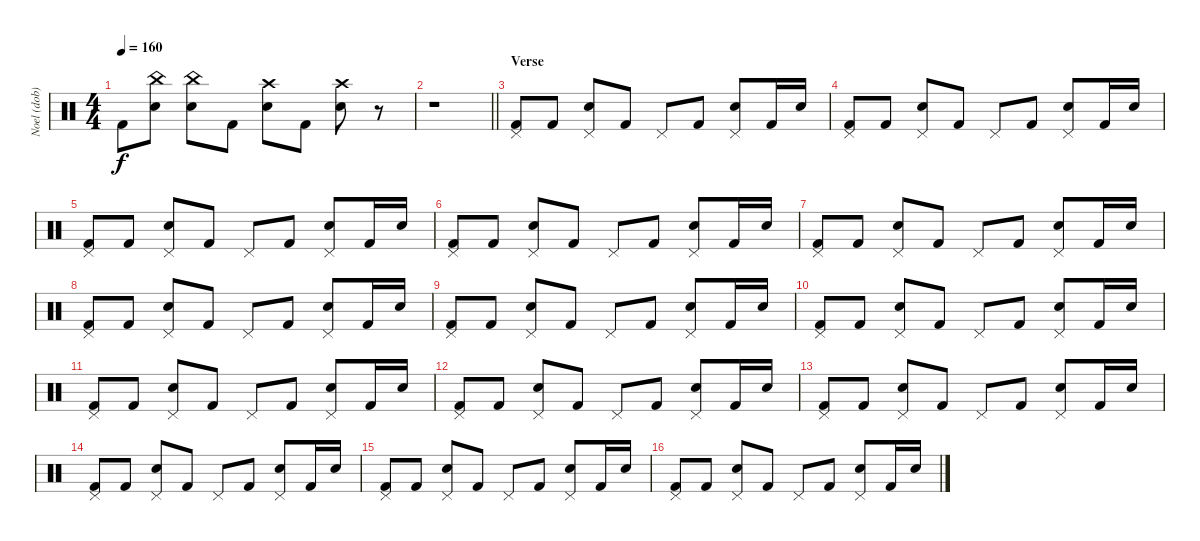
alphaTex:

\track ("Noel (dob)" "Noel (dob)") {instrument percussion}
\staff {score}
\articulation defaults
\ts (4 4)
\tempo 160
\clef neutral
\ks c "Kick (hit) 2".8{dy f}
("Electric Snare (hit)" "China (hit)").8 ("Electric Snare (hit)" "China (hit)").8 "Kick (hit) 2".8 ("Crash high (hit)" "Electric Snare (hit)").8 "Kick (hit) 2".8 ("Crash high (hit)" "Electric Snare (hit)").8 r.8 |
\barLineRight lightlight
r.1 |
\section ("" "Verse")
("Kick (hit) 2" "Pedal Hi-Hat (hit)").8 "Kick (hit) 2".8 ("Electric Snare (hit)" "Pedal Hi-Hat (hit)").8 "Kick (hit) 2".8 "Pedal Hi-Hat (hit)".8 "Kick (hit) 2".8 ("Electric Snare (hit)" "Pedal Hi-Hat (hit)").8 "Kick (hit) 2".16 "Electric Snare (hit)".16 |
("Kick (hit) 2" "Pedal Hi-Hat (hit)").8 "Kick (hit) 2".8 ("Electric Snare (hit)" "Pedal Hi-Hat (hit)").8 "Kick (hit) 2".8 "Pedal Hi-Hat (hit)".8 "Kick (hit) 2".8 ("Electric Snare (hit)" "Pedal Hi-Hat (hit)").8 "Kick (hit) 2".16 "Electric Snare (hit)".16 |
("Kick (hit) 2" "Pedal Hi-Hat (hit)").8 "Kick (hit) 2".8 ("Electric Snare (hit)" "Pedal Hi-Hat (hit)").8 "Kick (hit) 2".8 "Pedal Hi-Hat (hit)".8 "Kick (hit) 2".8 ("Electric Snare (hit)" "Pedal Hi-Hat (hit)").8 "Kick (hit) 2".16 "Electric Snare (hit)".16 |
("Kick (hit) 2" "Pedal Hi-Hat (hit)").8 "Kick (hit) 2".8 ("Electric Snare (hit)" "Pedal Hi-Hat (hit)").8 "Kick (hit) 2".8 "Pedal Hi-Hat (hit)".8 "Kick (hit) 2".8 ("Electric Snare (hit)" "Pedal Hi-Hat (hit)").8 "Kick (hit) 2".16 "Electric Snare (hit)".16 |
("Kick (hit) 2" "Pedal Hi-Hat (hit)").8 "Kick (hit) 2".8 ("Electric Snare (hit)" "Pedal Hi-Hat (hit)").8 "Kick (hit) 2".8 "Pedal Hi-Hat (hit)".8 "Kick (hit) 2".8 ("Electric Snare (hit)" "Pedal Hi-Hat (hit)").8 "Kick (hit) 2".16 "Electric Snare (hit)".16 |
("Kick (hit) 2" "Pedal Hi-Hat (hit)").8 "Kick (hit) 2".8 ("Electric Snare (hit)" "Pedal Hi-Hat (hit)").8 "Kick (hit) 2".8 "Pedal Hi-Hat (hit)".8 "Kick (hit) 2".8 ("Electric Snare (hit)" "Pedal Hi-Hat (hit)").8 "Kick (hit) 2".16 "Electric Snare (hit)".16 |
("Kick (hit) 2" "Pedal Hi-Hat (hit)").8 "Kick (hit) 2".8 ("Electric Snare (hit)" "Pedal Hi-Hat (hit)").8 "Kick (hit) 2".8 "Pedal Hi-Hat (hit)".8 "Kick (hit) 2".8 ("Electric Snare (hit)" "Pedal Hi-Hat (hit)").8 "Kick (hit) 2".16 "Electric Snare (hit)".16 |
("Kick (hit) 2" "Pedal Hi-Hat (hit)").8 "Kick (hit) 2".8 ("Electric Snare (hit)" "Pedal Hi-Hat (hit)").8 "Kick (hit) 2".8 "Pedal Hi-Hat (hit)".8 "Kick (hit) 2".8 ("Electric Snare (hit)" "Pedal Hi-Hat (hit)").8 "Kick (hit) 2".16 "Electric Snare (hit)".16 |
("Kick (hit) 2" "Pedal Hi-Hat (hit)").8 "Kick (hit) 2".8 ("Electric Snare (hit)" "Pedal Hi-Hat (hit)").8 "Kick (hit) 2".8 "Pedal Hi-Hat (hit)".8 "Kick (hit) 2".8 ("Electric Snare (hit)" "Pedal Hi-Hat (hit)").8 "Kick (hit) 2".16 "Electric Snare (hit)".16 |
("Kick (hit) 2" "Pedal Hi-Hat (hit)").8 "Kick (hit) 2".8 ("Electric Snare (hit)" "Pedal Hi-Hat (hit)").8 "Kick (hit) 2".8 "Pedal Hi-Hat (hit)".8 "Kick (hit) 2".8 ("Electric Snare (hit)" "Pedal Hi-Hat (hit)").8 "Kick (hit) 2".16 "Electric Snare (hit)".16 |
("Kick (hit) 2" "Pedal Hi-Hat (hit)").8 "Kick (hit) 2".8 ("Electric Snare (hit)" "Pedal Hi-Hat (hit)").8 "Kick (hit) 2".8 "Pedal Hi-Hat (hit)".8 "Kick (hit) 2".8 ("Electric Snare (hit)" "Pedal Hi-Hat (hit)").8 "Kick (hit) 2".16 "Electric Snare (hit)".16 |
("Kick (hit) 2" "Pedal Hi-Hat (hit)").8 "Kick (hit) 2".8 ("Electric Snare (hit)" "Pedal Hi-Hat (hit)").8 "Kick (hit) 2".8 "Pedal Hi-Hat (hit)".8 "Kick (hit) 2".8 ("Electric Snare (hit)" "Pedal Hi-Hat (hit)").8 "Kick (hit) 2".16 "Electric Snare (hit)".16 |
("Kick (hit) 2" "Pedal Hi-Hat (hit)").8 "Kick (hit) 2".8 ("Electric Snare (hit)" "Pedal Hi-Hat (hit)").8 "Kick (hit) 2".8 "Pedal Hi-Hat (hit)".8 "Kick (hit) 2".8 ("Electric Snare (hit)" "Pedal Hi-Hat (hit)").8 "Kick (hit) 2".16 "Electric Snare (hit)".16 |
("Kick (hit) 2" "Pedal Hi-Hat (hit)").8 "Kick (hit) 2".8 ("Electric Snare (hit)" "Pedal Hi-Hat (hit)").8 "Kick (hit) 2".8 "Pedal Hi-Hat (hit)".8 "Kick (hit) 2".8 ("Electric Snare (hit)" "Pedal Hi-Hat (hit)").8 "Kick (hit) 2".16 "Electric Snare (hit)".16
